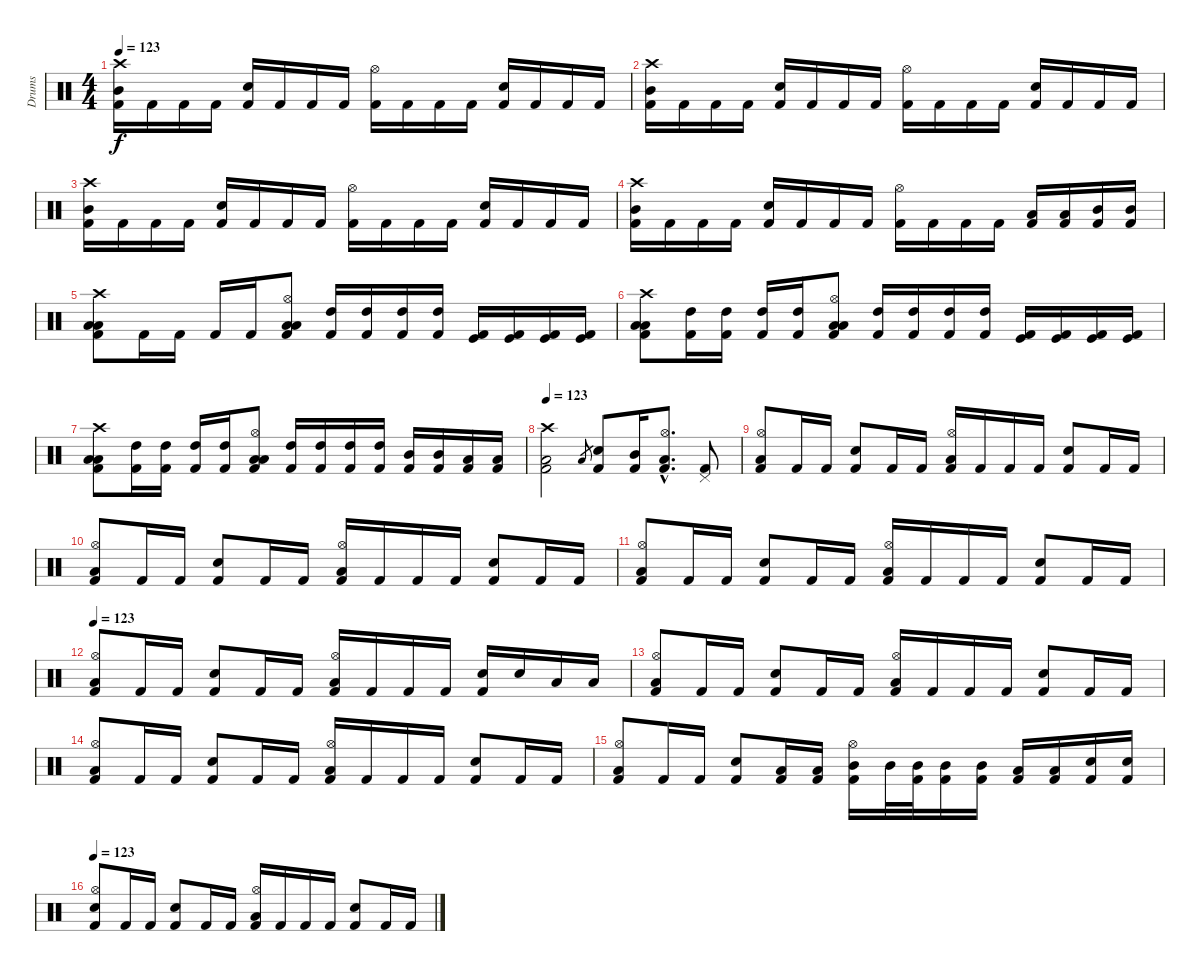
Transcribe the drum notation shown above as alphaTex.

\track ("Drums" "Drums") {instrument percussion}
\staff {score}
\articulation defaults
\ts (4 4)
\tempo 123
\clef neutral
\ks c
("Crash high (hit)" "Mid Tom (hit)" "Kick (hit) 2").16{dy f} "Kick (hit) 2".16 "Kick (hit) 2".16 "Kick (hit) 2".16 ("Snare (hit) 2" "Kick (hit) 2").16 "Kick (hit) 2".16 "Kick (hit) 2".16 "Kick (hit) 2".16 ("Hi-Hat (open)" "Kick (hit) 2").16 "Kick (hit) 2".16 "Kick (hit) 2".16 "Kick (hit) 2".16 ("Snare (hit) 2" "Kick (hit) 2").16 "Kick (hit) 2".16 "Kick (hit) 2".16 "Kick (hit) 2".16 |
("Crash high (hit)" "Mid Tom (hit)" "Kick (hit) 2").16 "Kick (hit) 2".16 "Kick (hit) 2".16 "Kick (hit) 2".16 ("Snare (hit) 2" "Kick (hit) 2").16 "Kick (hit) 2".16 "Kick (hit) 2".16 "Kick (hit) 2".16 ("Hi-Hat (open)" "Kick (hit) 2").16 "Kick (hit) 2".16 "Kick (hit) 2".16 "Kick (hit) 2".16 ("Snare (hit) 2" "Kick (hit) 2").16 "Kick (hit) 2".16 "Kick (hit) 2".16 "Kick (hit) 2".16 |
("Crash high (hit)" "Mid Tom (hit)" "Kick (hit) 2").16 "Kick (hit) 2".16 "Kick (hit) 2".16 "Kick (hit) 2".16 ("Snare (hit) 2" "Kick (hit) 2").16 "Kick (hit) 2".16 "Kick (hit) 2".16 "Kick (hit) 2".16 ("Hi-Hat (open)" "Kick (hit) 2").16 "Kick (hit) 2".16 "Kick (hit) 2".16 "Kick (hit) 2".16 ("Snare (hit) 2" "Kick (hit) 2").16 "Kick (hit) 2".16 "Kick (hit) 2".16 "Kick (hit) 2".16 |
("Crash high (hit)" "Mid Tom (hit)" "Kick (hit) 2").16 "Kick (hit) 2".16 "Kick (hit) 2".16 "Kick (hit) 2".16 ("Snare (hit) 2" "Kick (hit) 2").16 "Kick (hit) 2".16 "Kick (hit) 2".16 "Kick (hit) 2".16 ("Hi-Hat (open)" "Kick (hit) 2").16 "Kick (hit) 2".16 "Kick (hit) 2".16 "Kick (hit) 2".16 ("Low Tom (hit)" "Kick (hit) 2").16 ("Low Tom (hit)" "Kick (hit) 2").16 ("Mid Tom (hit)" "Kick (hit) 2").16 ("Mid Tom (hit)" "Kick (hit) 2").16 |
("Crash high (hit)" "Low Floor Tom (hit)" "Low Floor Tom (hit)" "Kick (hit) 2").8 "Kick (hit) 2".16 "Kick (hit) 2".16 "Kick (hit) 2".16 "Kick (hit) 2".16 ("Hi-Hat (open)" "Low Tom (hit)" "Low Tom (hit)" "Kick (hit) 2").8 ("High Tom (hit)" "Kick (hit) 2").16 ("High Tom (hit)" "Kick (hit) 2").16 ("High Tom (hit)" "Kick (hit) 2").16 ("High Tom (hit)" "Kick (hit) 2").16 ("Kick (hit)" "Kick (hit) 2").16 ("Kick (hit)" "Kick (hit) 2").16 ("Kick (hit)" "Kick (hit) 2").16 ("Kick (hit)" "Kick (hit) 2").16 |
("Crash high (hit)" "Low Floor Tom (hit)" "Low Floor Tom (hit)" "Kick (hit) 2").8 ("High Tom (hit)" "Kick (hit) 2").16 ("High Tom (hit)" "Kick (hit) 2").16 ("High Tom (hit)" "Kick (hit) 2").16 ("High Tom (hit)" "Kick (hit) 2").16 ("Hi-Hat (open)" "Low Tom (hit)" "Low Tom (hit)" "Kick (hit) 2").8 ("High Tom (hit)" "Kick (hit) 2").16 ("High Tom (hit)" "Kick (hit) 2").16 ("High Tom (hit)" "Kick (hit) 2").16 ("High Tom (hit)" "Kick (hit) 2").16 ("Kick (hit)" "Kick (hit) 2").16 ("Kick (hit)" "Kick (hit) 2").16 ("Kick (hit)" "Kick (hit) 2").16 ("Kick (hit)" "Kick (hit) 2").16 |
("Crash high (hit)" "Low Floor Tom (hit)" "Low Floor Tom (hit)" "Kick (hit) 2").8 ("High Tom (hit)" "Kick (hit) 2").16 ("High Tom (hit)" "Kick (hit) 2").16 ("High Tom (hit)" "Kick (hit) 2").16 ("High Tom (hit)" "Kick (hit) 2").16 ("Hi-Hat (open)" "Low Tom (hit)" "Low Tom (hit)" "Kick (hit) 2").8 ("High Tom (hit)" "Kick (hit) 2").16 ("High Tom (hit)" "Kick (hit) 2").16 ("High Tom (hit)" "Kick (hit) 2").16 ("High Tom (hit)" "Kick (hit) 2").16 ("Mid Tom (hit)" "Kick (hit) 2").16 ("Mid Tom (hit)" "Kick (hit) 2").16 ("Low Tom (hit)" "Kick (hit) 2").16 ("Low Tom (hit)" "Kick (hit) 2").16 |
\tempo 123
("Crash high (hit)" "Low Floor Tom (hit)" "Kick (hit) 2").2 "Low Tom (hit)".8{gr} ("Snare (hit) 2" "Kick (hit) 2").8 ("Mid Tom (hit)" "Kick (hit) 2").16 ("Hi-Hat (open)"{hac} "Low Floor Tom (hit)"{hac} "Kick (hit) 2"{hac}).8{d} ("Pedal Hi-Hat (hit)" "Kick (hit) 2").8 |
("Hi-Hat (open)" "Low Floor Tom (hit)" "Kick (hit) 2").8 "Kick (hit) 2".16 "Kick (hit) 2".16 ("Snare (hit) 2" "Kick (hit) 2").8 "Kick (hit) 2".16 "Kick (hit) 2".16 ("Hi-Hat (open)" "Low Floor Tom (hit)" "Kick (hit) 2").16 "Kick (hit) 2".16 "Kick (hit) 2".16 "Kick (hit) 2".16 ("Snare (hit) 2" "Kick (hit) 2").8 "Kick (hit) 2".16 "Kick (hit) 2".16 |
("Hi-Hat (open)" "Low Floor Tom (hit)" "Kick (hit) 2").8 "Kick (hit) 2".16 "Kick (hit) 2".16 ("Snare (hit) 2" "Kick (hit) 2").8 "Kick (hit) 2".16 "Kick (hit) 2".16 ("Hi-Hat (open)" "Low Floor Tom (hit)" "Kick (hit) 2").16 "Kick (hit) 2".16 "Kick (hit) 2".16 "Kick (hit) 2".16 ("Snare (hit) 2" "Kick (hit) 2").8 "Kick (hit) 2".16 "Kick (hit) 2".16 |
("Hi-Hat (open)" "Low Floor Tom (hit)" "Kick (hit) 2").8 "Kick (hit) 2".16 "Kick (hit) 2".16 ("Snare (hit) 2" "Kick (hit) 2").8 "Kick (hit) 2".16 "Kick (hit) 2".16 ("Hi-Hat (open)" "Low Floor Tom (hit)" "Kick (hit) 2").16 "Kick (hit) 2".16 "Kick (hit) 2".16 "Kick (hit) 2".16 ("Snare (hit) 2" "Kick (hit) 2").8 "Kick (hit) 2".16 "Kick (hit) 2".16 |
\tempo 123
("Hi-Hat (open)" "Low Floor Tom (hit)" "Kick (hit) 2").8 "Kick (hit) 2".16 "Kick (hit) 2".16 ("Snare (hit) 2" "Kick (hit) 2").8 "Kick (hit) 2".16 "Kick (hit) 2".16 ("Hi-Hat (open)" "Low Floor Tom (hit)" "Kick (hit) 2").16 "Kick (hit) 2".16 "Kick (hit) 2".16 "Kick (hit) 2".16 ("Snare (hit) 2" "Kick (hit) 2").16 "Snare (hit) 2".16 "Low Tom (hit)".16 "Low Tom (hit)".16 |
("Hi-Hat (open)" "Low Floor Tom (hit)" "Kick (hit) 2").8 "Kick (hit) 2".16 "Kick (hit) 2".16 ("Snare (hit) 2" "Kick (hit) 2").8 "Kick (hit) 2".16 "Kick (hit) 2".16 ("Hi-Hat (open)" "Low Floor Tom (hit)" "Kick (hit) 2").16 "Kick (hit) 2".16 "Kick (hit) 2".16 "Kick (hit) 2".16 ("Snare (hit) 2" "Kick (hit) 2").8 "Kick (hit) 2".16 "Kick (hit) 2".16 |
("Hi-Hat (open)" "Low Floor Tom (hit)" "Kick (hit) 2").8 "Kick (hit) 2".16 "Kick (hit) 2".16 ("Snare (hit) 2" "Kick (hit) 2").8 "Kick (hit) 2".16 "Kick (hit) 2".16 ("Hi-Hat (open)" "Low Floor Tom (hit)" "Kick (hit) 2").16 "Kick (hit) 2".16 "Kick (hit) 2".16 "Kick (hit) 2".16 ("Snare (hit) 2" "Kick (hit) 2").8 "Kick (hit) 2".16 "Kick (hit) 2".16 |
("Hi-Hat (open)" "Low Floor Tom (hit)" "Kick (hit) 2").8 "Kick (hit) 2".16 "Kick (hit) 2".16 ("Snare (hit) 2" "Kick (hit) 2").8 ("Low Tom (hit)" "Kick (hit) 2").16 ("Low Tom (hit)" "Kick (hit) 2").16 ("Hi-Hat (open)" "Mid Tom (hit)" "Kick (hit) 2").16 "Mid Tom (hit)".32 ("Mid Tom (hit)" "Kick (hit) 2").32 ("Mid Tom (hit)" "Kick (hit) 2").16 ("Mid Tom (hit)" "Kick (hit) 2").16 ("Low Tom (hit)" "Kick (hit) 2").16 ("Low Tom (hit)" "Kick (hit) 2").16 ("Electric Snare (hit)" "Kick (hit) 2").16 ("Electric Snare (hit)" "Kick (hit) 2").16 |
\tempo 123
("Hi-Hat (open)" "Electric Snare (hit)" "Kick (hit) 2").8 "Kick (hit) 2".16 "Kick (hit) 2".16 ("Snare (hit) 2" "Kick (hit) 2").8 "Kick (hit) 2".16 "Kick (hit) 2".16 ("Hi-Hat (open)" "Low Floor Tom (hit)" "Kick (hit) 2").16 "Kick (hit) 2".16 "Kick (hit) 2".16 "Kick (hit) 2".16 ("Snare (hit) 2" "Kick (hit) 2").8 "Kick (hit) 2".16 "Kick (hit) 2".16
